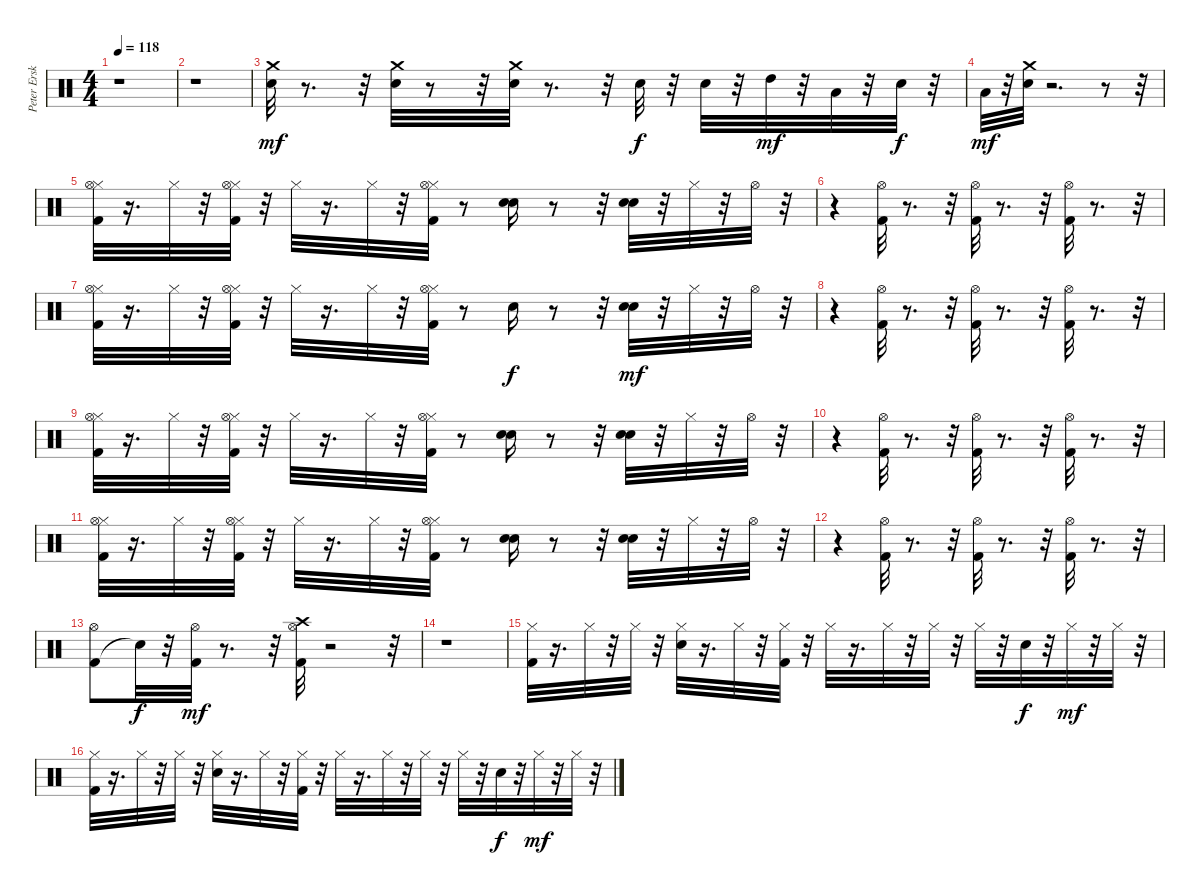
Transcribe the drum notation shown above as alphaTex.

\track ("Peter Erskine" "Peter Ersk") {instrument percussion}
\staff {score}
\articulation defaults
\ts (4 4)
\tempo 118
\clef neutral
\ks c
r.1{dy mf} |
r.1 |
("Snare (hit) 2" "Crash medium (hit)").32{balance 8} r.8{d} r.32 ("Snare (hit) 2" "Crash medium (hit)").32 r.8 r.32 ("Snare (hit) 2" "Crash medium (hit)").32 r.8{d} r.32 "Snare (hit) 2".32{dy f} r.32 "Snare (hit) 2".32 r.32 "High Tom (hit)".32{dy mf} r.32 "Low Tom (hit)".32 r.32 "Snare (hit) 2".32{dy f} r.32 |
"Low Tom (hit)".32{dy mf} r.32 ("Snare (hit) 2" "Crash medium (hit)").32 r.2{d} r.8 r.32 |
("Kick (hit) 2" "Hi-Hat (closed)" "Hi-Hat (open)").32 r.16{d} "Hi-Hat (closed)".32 r.32 ("Kick (hit) 2" "Hi-Hat (closed)" "Hi-Hat (open)").32 r.32 "Hi-Hat (closed)".32 r.16{d} "Hi-Hat (closed)".32 r.32 ("Kick (hit) 2" "Hi-Hat (closed)" "Hi-Hat (open)").32 r.8 ("Electric Snare (hit)" "Electric Snare (hit)").16 r.8 r.32 ("Electric Snare (hit)" "Electric Snare (hit)").32 r.32 "Hi-Hat (closed)".32 r.32 "Hi-Hat (open)".32 r.32 |
r.4 ("Kick (hit) 2" "Hi-Hat (open)").32 r.8{d} r.32 ("Kick (hit) 2" "Hi-Hat (open)").32 r.8{d} r.32 ("Kick (hit) 2" "Hi-Hat (open)").32 r.8{d} r.32 |
("Kick (hit) 2" "Hi-Hat (closed)" "Hi-Hat (open)").32 r.16{d} "Hi-Hat (closed)".32 r.32 ("Kick (hit) 2" "Hi-Hat (closed)" "Hi-Hat (open)").32 r.32 "Hi-Hat (closed)".32 r.16{d} "Hi-Hat (closed)".32 r.32 ("Kick (hit) 2" "Hi-Hat (closed)" "Hi-Hat (open)").32 r.8 "Electric Snare (hit)".16{dy f} r.8 r.32 ("Electric Snare (hit)" "Electric Snare (hit)").32{dy mf} r.32 "Hi-Hat (closed)".32 r.32 "Hi-Hat (open)".32 r.32 |
r.4 ("Kick (hit) 2" "Hi-Hat (open)").32 r.8{d} r.32 ("Kick (hit) 2" "Hi-Hat (open)").32 r.8{d} r.32 ("Kick (hit) 2" "Hi-Hat (open)").32 r.8{d} r.32 |
("Kick (hit) 2" "Hi-Hat (closed)" "Hi-Hat (open)").32 r.16{d} "Hi-Hat (closed)".32 r.32 ("Kick (hit) 2" "Hi-Hat (closed)" "Hi-Hat (open)").32 r.32 "Hi-Hat (closed)".32 r.16{d} "Hi-Hat (closed)".32 r.32 ("Kick (hit) 2" "Hi-Hat (closed)" "Hi-Hat (open)").32 r.8 ("Electric Snare (hit)" "Electric Snare (hit)").16 r.8 r.32 ("Electric Snare (hit)" "Electric Snare (hit)").32 r.32 "Hi-Hat (closed)".32 r.32 "Hi-Hat (open)".32 r.32 |
r.4 ("Kick (hit) 2" "Hi-Hat (open)").32 r.8{d} r.32 ("Kick (hit) 2" "Hi-Hat (open)").32 r.8{d} r.32 ("Kick (hit) 2" "Hi-Hat (open)").32 r.8{d} r.32 |
("Kick (hit) 2" "Hi-Hat (closed)" "Hi-Hat (open)").32 r.16{d} "Hi-Hat (closed)".32 r.32 ("Kick (hit) 2" "Hi-Hat (closed)" "Hi-Hat (open)").32 r.32 "Hi-Hat (closed)".32 r.16{d} "Hi-Hat (closed)".32 r.32 ("Kick (hit) 2" "Hi-Hat (closed)" "Hi-Hat (open)").32 r.8 ("Electric Snare (hit)" "Electric Snare (hit)").16 r.8 r.32 ("Electric Snare (hit)" "Electric Snare (hit)").32 r.32 "Hi-Hat (closed)".32 r.32 "Hi-Hat (open)".32 r.32 |
r.4 ("Kick (hit) 2" "Hi-Hat (open)").32 r.8{d} r.32 ("Kick (hit) 2" "Hi-Hat (open)").32 r.8{d} r.32 ("Kick (hit) 2" "Hi-Hat (open)").32 r.8{d} r.32 |
("Kick (hit) 2" "Hi-Hat (open)").8 "Snare (hit)"{t}.32{dy f} r.32 ("Kick (hit) 2" "Hi-Hat (open)").32{dy mf} r.8{d} r.32 ("Kick (hit) 2" "Crash high (hit)" "Hi-Hat (open)").32 r.2 r.32 |
r.1 |
("Kick (hit) 2" "Hi-Hat (closed)").32 r.16{d} "Hi-Hat (closed)".32 r.32 "Hi-Hat (closed)".32 r.32 ("Electric Snare (hit)" "Hi-Hat (closed)").32 r.16{d} "Hi-Hat (closed)".32 r.32 ("Kick (hit) 2" "Hi-Hat (closed)").32 r.32 "Hi-Hat (closed)".32 r.16{d} "Hi-Hat (closed)".32 r.32 "Hi-Hat (closed)".32 r.32 "Hi-Hat (closed)".32 r.32 "Electric Snare (hit)".32{dy f} r.32 "Hi-Hat (closed)".32{dy mf} r.32 "Hi-Hat (closed)".32 r.32 |
("Kick (hit) 2" "Hi-Hat (closed)").32 r.16{d} "Hi-Hat (closed)".32 r.32 "Hi-Hat (closed)".32 r.32 ("Electric Snare (hit)" "Hi-Hat (closed)").32 r.16{d} "Hi-Hat (closed)".32 r.32 ("Kick (hit) 2" "Hi-Hat (closed)").32 r.32 "Hi-Hat (closed)".32 r.16{d} "Hi-Hat (closed)".32 r.32 "Hi-Hat (closed)".32 r.32 "Hi-Hat (closed)".32 r.32 "Electric Snare (hit)".32{dy f} r.32 "Hi-Hat (closed)".32{dy mf} r.32 "Hi-Hat (closed)".32 r.32
